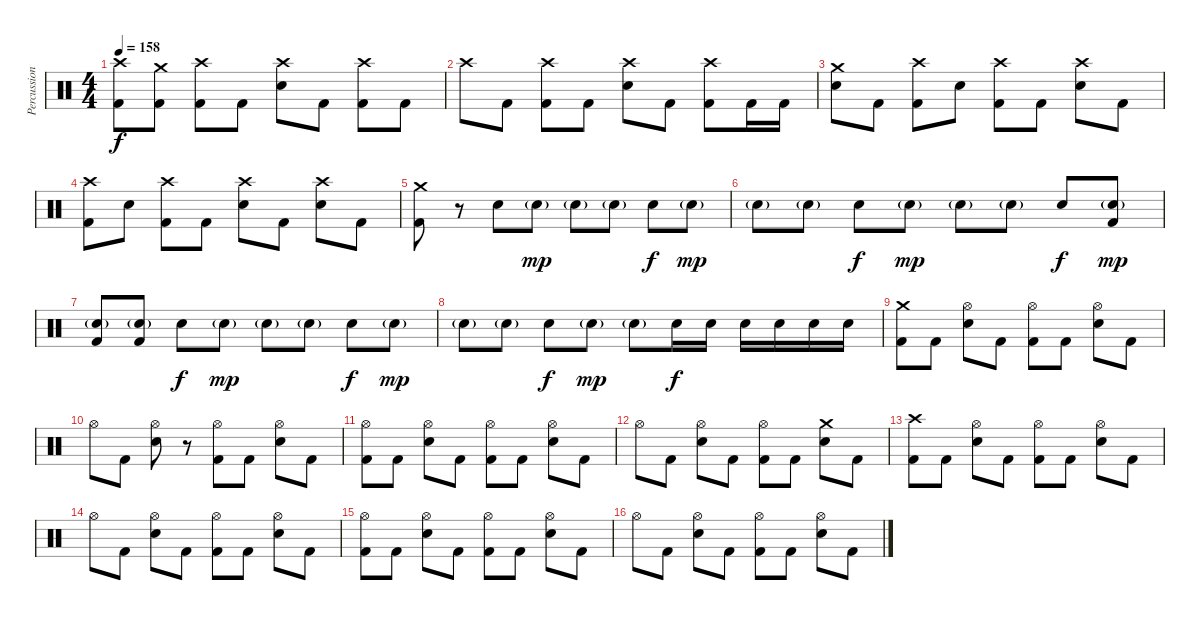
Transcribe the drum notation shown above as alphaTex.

\track ("Percussion" "Percussion") {instrument percussion}
\staff {score}
\articulation defaults
\ts (4 4)
\tempo 158
\clef neutral
\ks c
("Crash high (hit)" "Kick (hit) 2").8{dy f} ("Crash medium (hit)" "Kick (hit) 2").8 ("Crash high (hit)" "Kick (hit) 2").8 "Kick (hit) 2".8 ("Crash high (hit)" "Snare (hit) 2").8 "Kick (hit) 2".8 ("Crash high (hit)" "Kick (hit) 2").8 "Kick (hit) 2".8 |
"Crash high (hit)".8 "Kick (hit) 2".8 ("Crash high (hit)" "Kick (hit) 2").8 "Kick (hit) 2".8 ("Crash high (hit)" "Snare (hit) 2").8 "Kick (hit) 2".8 ("Crash high (hit)" "Kick (hit) 2").8 "Kick (hit) 2".16 "Kick (hit) 2".16 |
("Crash medium (hit)" "Snare (hit) 2").8 "Kick (hit) 2".8 ("Crash high (hit)" "Kick (hit) 2").8 "Snare (hit) 2".8 ("Crash high (hit)" "Kick (hit) 2").8 "Kick (hit) 2".8 ("Crash high (hit)" "Snare (hit) 2").8 "Kick (hit) 2".8 |
("Crash high (hit)" "Kick (hit) 2").8 "Snare (hit) 2".8 ("Crash high (hit)" "Kick (hit) 2").8 "Kick (hit) 2".8 ("Crash high (hit)" "Snare (hit) 2").8 "Kick (hit) 2".8 ("Crash high (hit)" "Snare (hit) 2").8 "Kick (hit) 2".8 |
("Crash medium (hit)" "Kick (hit) 2").8 r.8 "Snare (hit) 2".8 "Snare (hit) 2"{g}.8{dy mp} "Snare (hit) 2"{g}.8 "Snare (hit) 2"{g}.8 "Snare (hit) 2".8{dy f} "Snare (hit) 2"{g}.8{dy mp} |
"Snare (hit) 2"{g}.8 "Snare (hit) 2"{g}.8 "Snare (hit) 2".8{dy f} "Snare (hit) 2"{g}.8{dy mp} "Snare (hit) 2"{g}.8 "Snare (hit) 2"{g}.8 "Snare (hit) 2".8{dy f} ("Snare (hit) 2"{g} "Kick (hit) 2").8{dy mp} |
("Snare (hit) 2"{g} "Kick (hit) 2").8 ("Snare (hit) 2"{g} "Kick (hit) 2").8 "Snare (hit) 2".8{dy f} "Snare (hit) 2"{g}.8{dy mp} "Snare (hit) 2"{g}.8 "Snare (hit) 2"{g}.8 "Snare (hit) 2".8{dy f} "Snare (hit) 2"{g}.8{dy mp} |
"Snare (hit) 2"{g}.8 "Snare (hit) 2"{g}.8 "Snare (hit) 2".8{dy f} "Snare (hit) 2"{g}.8{dy mp} "Snare (hit) 2"{g}.8 "Snare (hit) 2".16{dy f} "Snare (hit) 2".16 "Snare (hit) 2".16 "Snare (hit) 2".16 "Snare (hit) 2".16 "Snare (hit) 2".16 |
("Crash medium (hit)" "Kick (hit) 2").8 "Kick (hit) 2".8 ("Hi-Hat (open)" "Snare (hit) 2").8 "Kick (hit) 2".8 ("Hi-Hat (open)" "Kick (hit) 2").8 "Kick (hit) 2".8 ("Hi-Hat (open)" "Snare (hit) 2").8 "Kick (hit) 2".8 |
"Hi-Hat (open)".8 "Kick (hit) 2".8 ("Hi-Hat (open)" "Snare (hit) 2").8 r.8 ("Hi-Hat (open)" "Kick (hit) 2").8 "Kick (hit) 2".8 ("Hi-Hat (open)" "Snare (hit) 2").8 "Kick (hit) 2".8 |
("Hi-Hat (open)" "Kick (hit) 2").8 "Kick (hit) 2".8 ("Hi-Hat (open)" "Snare (hit) 2").8 "Kick (hit) 2".8 ("Hi-Hat (open)" "Kick (hit) 2").8 "Kick (hit) 2".8 ("Hi-Hat (open)" "Snare (hit) 2").8 "Kick (hit) 2".8 |
"Hi-Hat (open)".8 "Kick (hit) 2".8 ("Hi-Hat (open)" "Snare (hit) 2").8 "Kick (hit) 2".8 ("Hi-Hat (open)" "Kick (hit) 2").8 "Kick (hit) 2".8 ("Crash medium (hit)" "Snare (hit) 2").8 "Kick (hit) 2".8 |
("Crash high (hit)" "Kick (hit) 2").8 "Kick (hit) 2".8 ("Hi-Hat (open)" "Snare (hit) 2").8 "Kick (hit) 2".8 ("Hi-Hat (open)" "Kick (hit) 2").8 "Kick (hit) 2".8 ("Hi-Hat (open)" "Snare (hit) 2").8 "Kick (hit) 2".8 |
"Hi-Hat (open)".8 "Kick (hit) 2".8 ("Hi-Hat (open)" "Snare (hit) 2").8 "Kick (hit) 2".8 ("Hi-Hat (open)" "Kick (hit) 2").8 "Kick (hit) 2".8 ("Hi-Hat (open)" "Snare (hit) 2").8 "Kick (hit) 2".8 |
("Hi-Hat (open)" "Kick (hit) 2").8 "Kick (hit) 2".8 ("Hi-Hat (open)" "Snare (hit) 2").8 "Kick (hit) 2".8 ("Hi-Hat (open)" "Kick (hit) 2").8 "Kick (hit) 2".8 ("Hi-Hat (open)" "Snare (hit) 2").8 "Kick (hit) 2".8 |
"Hi-Hat (open)".8 "Kick (hit) 2".8 ("Hi-Hat (open)" "Snare (hit) 2").8 "Kick (hit) 2".8 ("Hi-Hat (open)" "Kick (hit) 2").8 "Kick (hit) 2".8 ("Hi-Hat (open)" "Snare (hit) 2").8 "Kick (hit) 2".8
